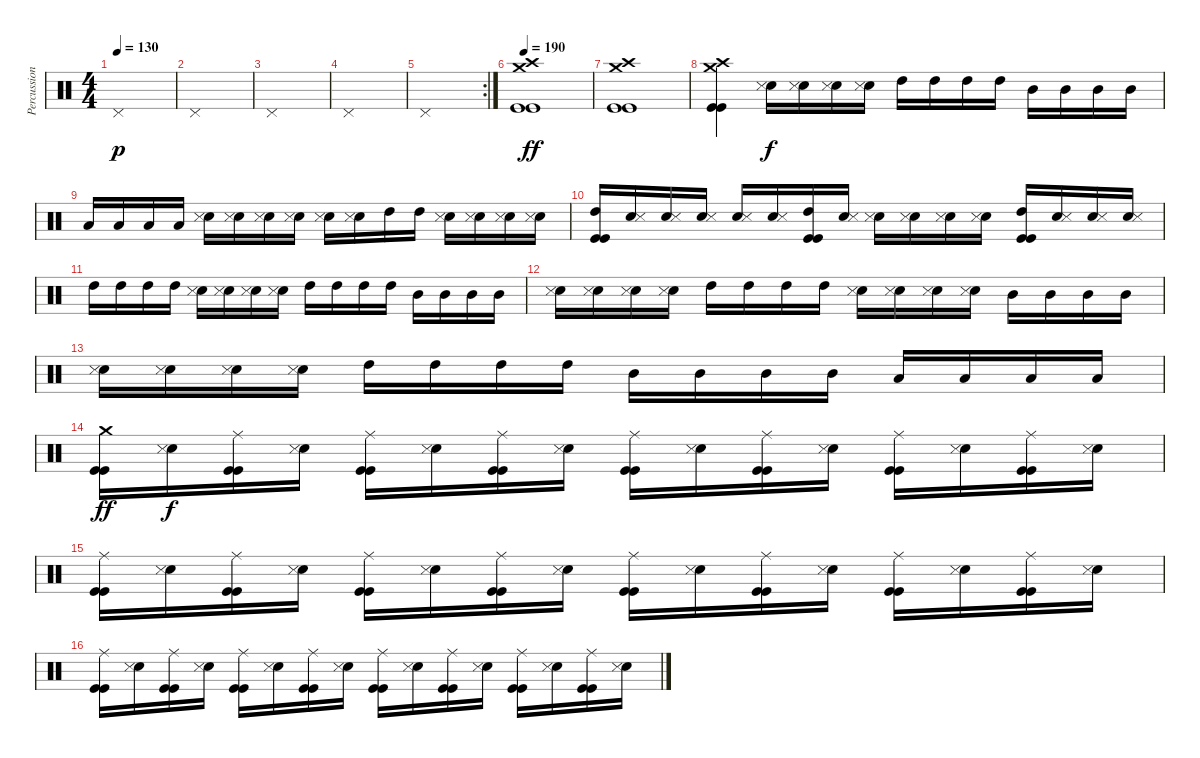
\track ("Percussion" "Percussion") {instrument percussion}
\staff {score}
\articulation defaults
\ts (4 4)
\tempo 130
\clef neutral
\ks c "Pedal Hi-Hat (hit)".1{dy p}
|
"Pedal Hi-Hat (hit)".1 |
"Pedal Hi-Hat (hit)".1 |
"Pedal Hi-Hat (hit)".1 |
\rc 2 "Pedal Hi-Hat (hit)".1
|
\tempo 190
("Crash high (hit)" "Crash medium (hit)" "Kick (hit)" "Kick (hit)").1{dy ff} |
("Crash high (hit)" "Crash medium (hit)" "Kick (hit)" "Kick (hit)").1 |
("Crash medium (hit)" "Crash high (hit)" "Kick (hit)" "Kick (hit)").4 ("Snare (hit) 2" "Snare (side stick) 3").16{dy f} ("Snare (hit) 2" "Snare (side stick) 3").16 ("Snare (hit) 2" "Snare (side stick) 3").16 ("Snare (hit) 2" "Snare (side stick) 3").16 "High Tom (hit)".16 "High Tom (hit)".16 "High Tom (hit)".16 "High Tom (hit)".16 "Mid Tom (hit)".16 "Mid Tom (hit)".16 "Mid Tom (hit)".16 "Mid Tom (hit)".16 |
"Low Tom (hit)".16 "Low Tom (hit)".16 "Low Tom (hit)".16 "Low Tom (hit)".16 ("Snare (hit) 2" "Snare (side stick) 3").16 ("Snare (hit) 2" "Snare (side stick) 3").16 ("Snare (hit) 2" "Snare (side stick) 3").16 ("Snare (hit) 2" "Snare (side stick) 3").16 ("Snare (hit) 2" "Snare (side stick) 3").16 ("Snare (hit) 2" "Snare (side stick) 3").16 "High Tom (hit)".16 "High Tom (hit)".16 ("Snare (hit) 2" "Snare (side stick) 3").16 ("Snare (hit) 2" "Snare (side stick) 3").16 ("Snare (hit) 2" "Snare (side stick) 3").16 ("Snare (hit) 2" "Snare (side stick) 3").16 |
("High Tom (hit)" "Kick (hit)" "Kick (hit)").16 ("Snare (hit) 2" "Snare (side stick) 3").16 ("Snare (hit) 2" "Snare (side stick) 3").16 ("Snare (hit) 2" "Snare (side stick) 3").16 ("Snare (hit) 2" "Snare (side stick) 3").16 ("Snare (hit) 2" "Snare (side stick) 3").16 ("High Tom (hit)" "Kick (hit)" "Kick (hit)").16 ("Snare (hit) 2" "Snare (side stick) 3").16 ("Snare (hit) 2" "Snare (side stick) 3").16 ("Snare (hit) 2" "Snare (side stick) 3").16 ("Snare (hit) 2" "Snare (side stick) 3").16 ("Snare (hit) 2" "Snare (side stick) 3").16 ("High Tom (hit)" "Kick (hit)" "Kick (hit)").16 ("Snare (hit) 2" "Snare (side stick) 3").16 ("Snare (hit) 2" "Snare (side stick) 3").16 ("Snare (hit) 2" "Snare (side stick) 3").16 |
"High Tom (hit)".16 "High Tom (hit)".16 "High Tom (hit)".16 "High Tom (hit)".16 ("Snare (hit) 2" "Snare (side stick) 3").16 ("Snare (hit) 2" "Snare (side stick) 3").16 ("Snare (hit) 2" "Snare (side stick) 3").16 ("Snare (hit) 2" "Snare (side stick) 3").16 "High Tom (hit)".16 "High Tom (hit)".16 "High Tom (hit)".16 "High Tom (hit)".16 "Mid Tom (hit)".16 "Mid Tom (hit)".16 "Mid Tom (hit)".16 "Mid Tom (hit)".16 |
("Snare (hit) 2" "Snare (side stick) 3").16 ("Snare (hit) 2" "Snare (side stick) 3").16 ("Snare (hit) 2" "Snare (side stick) 3").16 ("Snare (hit) 2" "Snare (side stick) 3").16 "High Tom (hit)".16 "High Tom (hit)".16 "High Tom (hit)".16 "High Tom (hit)".16 ("Snare (hit) 2" "Snare (side stick) 3").16 ("Snare (hit) 2" "Snare (side stick) 3").16 ("Snare (hit) 2" "Snare (side stick) 3").16 ("Snare (hit) 2" "Snare (side stick) 3").16 "Mid Tom (hit)".16 "Mid Tom (hit)".16 "Mid Tom (hit)".16 "Mid Tom (hit)".16 |
("Snare (hit) 2" "Snare (side stick) 3").16 ("Snare (hit) 2" "Snare (side stick) 3").16 ("Snare (hit) 2" "Snare (side stick) 3").16 ("Snare (hit) 2" "Snare (side stick) 3").16 "High Tom (hit)".16 "High Tom (hit)".16 "High Tom (hit)".16 "High Tom (hit)".16 "Mid Tom (hit)".16 "Mid Tom (hit)".16 "Mid Tom (hit)".16 "Mid Tom (hit)".16 "Low Tom (hit)".16 "Low Tom (hit)".16 "Low Tom (hit)".16 "Low Tom (hit)".16 |
("Crash medium (hit)" "Kick (hit)" "Kick (hit)").16{dy ff} ("Snare (hit) 2" "Snare (side stick) 3").16{dy f} ("Ride (middle)" "Kick (hit)" "Kick (hit)").16 ("Snare (hit) 2" "Snare (side stick) 3").16 ("Ride (middle)" "Kick (hit)" "Kick (hit)").16 ("Snare (hit) 2" "Snare (side stick) 3").16 ("Ride (middle)" "Kick (hit)" "Kick (hit)").16 ("Snare (hit) 2" "Snare (side stick) 3").16 ("Ride (middle)" "Kick (hit)" "Kick (hit)").16 ("Snare (hit) 2" "Snare (side stick) 3").16 ("Ride (middle)" "Kick (hit)" "Kick (hit)").16 ("Snare (hit) 2" "Snare (side stick) 3").16 ("Ride (middle)" "Kick (hit)" "Kick (hit)").16 ("Snare (hit) 2" "Snare (side stick) 3").16 ("Ride (middle)" "Kick (hit)" "Kick (hit)").16 ("Snare (hit) 2" "Snare (side stick) 3").16 |
("Ride (middle)" "Kick (hit)" "Kick (hit)").16 ("Snare (hit) 2" "Snare (side stick) 3").16 ("Ride (middle)" "Kick (hit)" "Kick (hit)").16 ("Snare (hit) 2" "Snare (side stick) 3").16 ("Ride (middle)" "Kick (hit)" "Kick (hit)").16 ("Snare (hit) 2" "Snare (side stick) 3").16 ("Ride (middle)" "Kick (hit)" "Kick (hit)").16 ("Snare (hit) 2" "Snare (side stick) 3").16 ("Ride (middle)" "Kick (hit)" "Kick (hit)").16 ("Snare (hit) 2" "Snare (side stick) 3").16 ("Ride (middle)" "Kick (hit)" "Kick (hit)").16 ("Snare (hit) 2" "Snare (side stick) 3").16 ("Ride (middle)" "Kick (hit)" "Kick (hit)").16 ("Snare (hit) 2" "Snare (side stick) 3").16 ("Ride (middle)" "Kick (hit)" "Kick (hit)").16 ("Snare (hit) 2" "Snare (side stick) 3").16 |
("Ride (middle)" "Kick (hit)" "Kick (hit)").16 ("Snare (hit) 2" "Snare (side stick) 3").16 ("Ride (middle)" "Kick (hit)" "Kick (hit)").16 ("Snare (hit) 2" "Snare (side stick) 3").16 ("Ride (middle)" "Kick (hit)" "Kick (hit)").16 ("Snare (hit) 2" "Snare (side stick) 3").16 ("Ride (middle)" "Kick (hit)" "Kick (hit)").16 ("Snare (hit) 2" "Snare (side stick) 3").16 ("Ride (middle)" "Kick (hit)" "Kick (hit)").16 ("Snare (hit) 2" "Snare (side stick) 3").16 ("Ride (middle)" "Kick (hit)" "Kick (hit)").16 ("Snare (hit) 2" "Snare (side stick) 3").16 ("Ride (middle)" "Kick (hit)" "Kick (hit)").16 ("Snare (hit) 2" "Snare (side stick) 3").16 ("Ride (middle)" "Kick (hit)" "Kick (hit)").16 ("Snare (hit) 2" "Snare (side stick) 3").16
